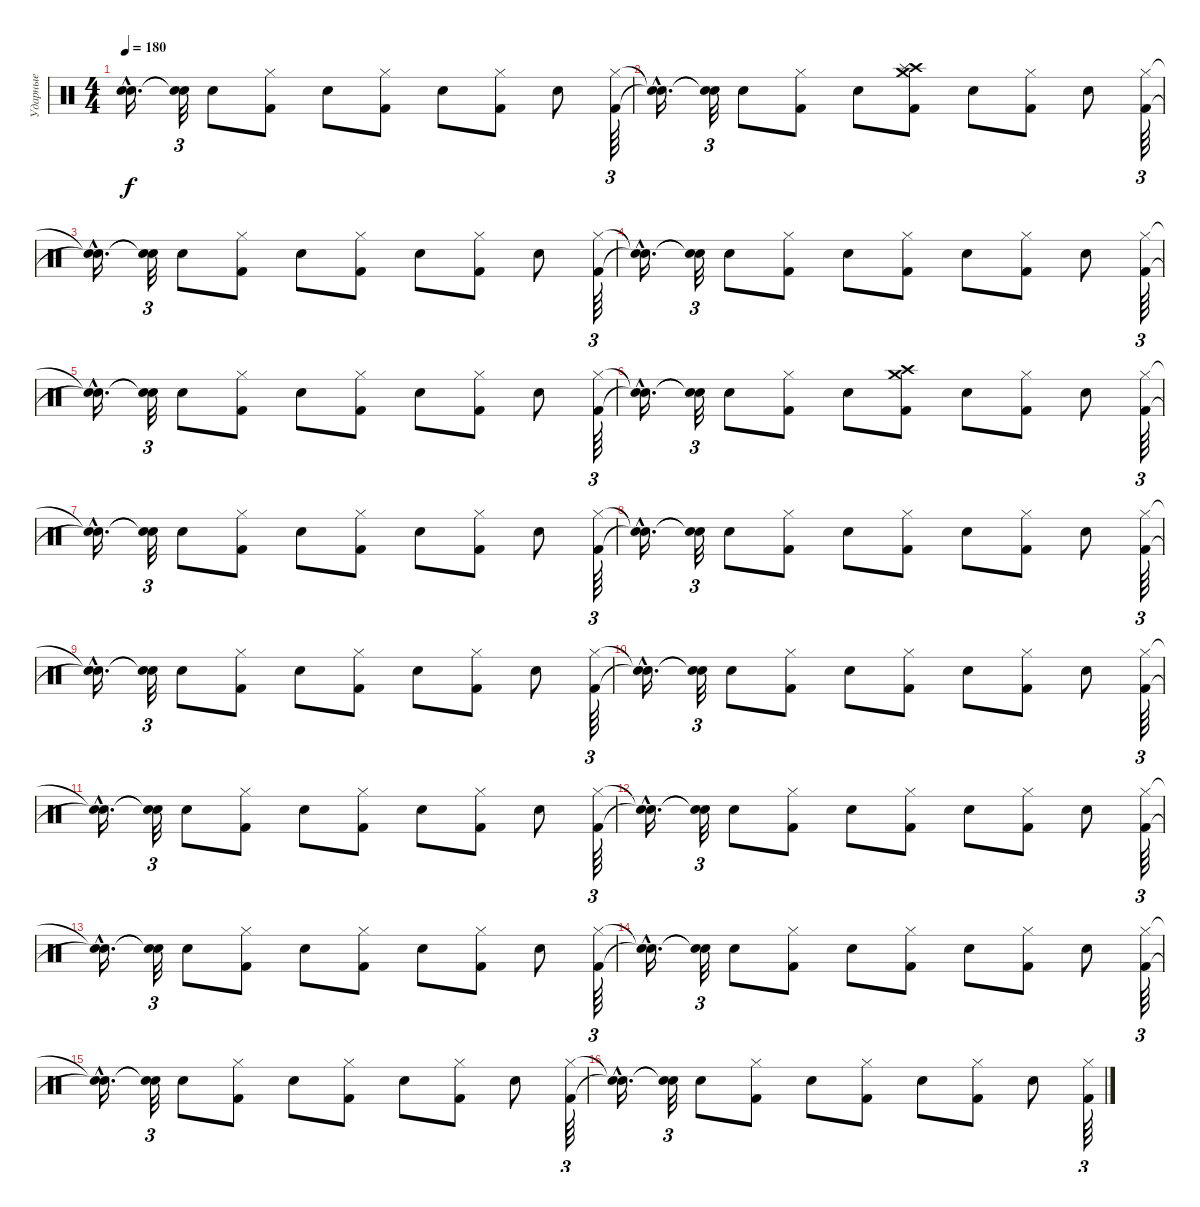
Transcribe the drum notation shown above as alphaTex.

\track ("Ударные" "Ударные") {instrument percussion}
\staff {score}
\articulation defaults
\ts (4 4)
\tempo 180
\clef neutral
\ks c
("Snare (hit)"{hac t} "Snare (hit)"{hac t}).16{d dy f} ("Snare (hit)"{t} "Snare (hit)"{t}).32{tu (3 2)} "Snare (hit) 2".8 ("Hi-Hat (closed)" "Kick (hit) 2").8 "Snare (hit) 2".8 ("Hi-Hat (closed)" "Kick (hit) 2").8 "Snare (hit) 2".8 ("Hi-Hat (closed)" "Kick (hit) 2").8 "Snare (hit) 2".8 ("Hi-Hat (closed)" "Kick (hit) 2").64{tu (3 2)} |
("Snare (hit)"{hac t} "Snare (hit)"{hac t}).16{d} ("Snare (hit)"{t} "Snare (hit)"{t}).32{tu (3 2)} "Snare (hit) 2".8 ("Hi-Hat (closed)" "Kick (hit) 2").8 "Snare (hit) 2".8 ("Crash high (hit)" "Crash medium (hit)" "Splash (hit)" "Kick (hit) 2").8 "Snare (hit) 2".8 ("Hi-Hat (closed)" "Kick (hit) 2").8 "Snare (hit) 2".8 ("Hi-Hat (closed)" "Kick (hit) 2").64{tu (3 2)} |
("Snare (hit)"{hac t} "Snare (hit)"{hac t}).16{d} ("Snare (hit)"{t} "Snare (hit)"{t}).32{tu (3 2)} "Snare (hit) 2".8 ("Hi-Hat (closed)" "Kick (hit) 2").8 "Snare (hit) 2".8 ("Hi-Hat (closed)" "Kick (hit) 2").8 "Snare (hit) 2".8 ("Hi-Hat (closed)" "Kick (hit) 2").8 "Snare (hit) 2".8 ("Hi-Hat (closed)" "Kick (hit) 2").64{tu (3 2)} |
("Snare (hit)"{hac t} "Snare (hit)"{hac t}).16{d} ("Snare (hit)"{t} "Snare (hit)"{t}).32{tu (3 2)} "Snare (hit) 2".8 ("Hi-Hat (closed)" "Kick (hit) 2").8 "Snare (hit) 2".8 ("Hi-Hat (closed)" "Kick (hit) 2").8 "Snare (hit) 2".8 ("Hi-Hat (closed)" "Kick (hit) 2").8 "Snare (hit) 2".8 ("Hi-Hat (closed)" "Kick (hit) 2").64{tu (3 2)} |
("Snare (hit)"{hac t} "Snare (hit)"{hac t}).16{d} ("Snare (hit)"{t} "Snare (hit)"{t}).32{tu (3 2)} "Snare (hit) 2".8 ("Hi-Hat (closed)" "Kick (hit) 2").8 "Snare (hit) 2".8 ("Hi-Hat (closed)" "Kick (hit) 2").8 "Snare (hit) 2".8 ("Hi-Hat (closed)" "Kick (hit) 2").8 "Snare (hit) 2".8 ("Hi-Hat (closed)" "Kick (hit) 2").64{tu (3 2)} |
("Snare (hit)"{hac t} "Snare (hit)"{hac t}).16{d} ("Snare (hit)"{t} "Snare (hit)"{t}).32{tu (3 2)} "Snare (hit) 2".8 ("Hi-Hat (closed)" "Kick (hit) 2").8 "Snare (hit) 2".8 ("Crash high (hit)" "Crash medium (hit)" "Kick (hit) 2").8 "Snare (hit) 2".8 ("Hi-Hat (closed)" "Kick (hit) 2").8 "Snare (hit) 2".8 ("Hi-Hat (closed)" "Kick (hit) 2").64{tu (3 2)} |
("Snare (hit)"{hac t} "Snare (hit)"{hac t}).16{d} ("Snare (hit)"{t} "Snare (hit)"{t}).32{tu (3 2)} "Snare (hit) 2".8 ("Hi-Hat (closed)" "Kick (hit) 2").8 "Snare (hit) 2".8 ("Hi-Hat (closed)" "Kick (hit) 2").8 "Snare (hit) 2".8 ("Hi-Hat (closed)" "Kick (hit) 2").8 "Snare (hit) 2".8 ("Hi-Hat (closed)" "Kick (hit) 2").64{tu (3 2)} |
("Snare (hit)"{hac t} "Snare (hit)"{hac t}).16{d} ("Snare (hit)"{t} "Snare (hit)"{t}).32{tu (3 2)} "Snare (hit) 2".8 ("Hi-Hat (closed)" "Kick (hit) 2").8 "Snare (hit) 2".8 ("Hi-Hat (closed)" "Kick (hit) 2").8 "Snare (hit) 2".8 ("Hi-Hat (closed)" "Kick (hit) 2").8 "Snare (hit) 2".8 ("Hi-Hat (closed)" "Kick (hit) 2").64{tu (3 2)} |
("Snare (hit)"{hac t} "Snare (hit)"{hac t}).16{d} ("Snare (hit)"{t} "Snare (hit)"{t}).32{tu (3 2)} "Snare (hit) 2".8 ("Hi-Hat (closed)" "Kick (hit) 2").8 "Snare (hit) 2".8 ("Hi-Hat (closed)" "Kick (hit) 2").8 "Snare (hit) 2".8 ("Hi-Hat (closed)" "Kick (hit) 2").8 "Snare (hit) 2".8 ("Hi-Hat (closed)" "Kick (hit) 2").64{tu (3 2)} |
("Snare (hit)"{hac t} "Snare (hit)"{hac t}).16{d} ("Snare (hit)"{t} "Snare (hit)"{t}).32{tu (3 2)} "Snare (hit) 2".8 ("Hi-Hat (closed)" "Kick (hit) 2").8 "Snare (hit) 2".8 ("Hi-Hat (closed)" "Kick (hit) 2").8 "Snare (hit) 2".8 ("Hi-Hat (closed)" "Kick (hit) 2").8 "Snare (hit) 2".8 ("Hi-Hat (closed)" "Kick (hit) 2").64{tu (3 2)} |
("Snare (hit)"{hac t} "Snare (hit)"{hac t}).16{d} ("Snare (hit)"{t} "Snare (hit)"{t}).32{tu (3 2)} "Snare (hit) 2".8 ("Hi-Hat (closed)" "Kick (hit) 2").8 "Snare (hit) 2".8 ("Hi-Hat (closed)" "Kick (hit) 2").8 "Snare (hit) 2".8 ("Hi-Hat (closed)" "Kick (hit) 2").8 "Snare (hit) 2".8 ("Hi-Hat (closed)" "Kick (hit) 2").64{tu (3 2)} |
("Snare (hit)"{hac t} "Snare (hit)"{hac t}).16{d} ("Snare (hit)"{t} "Snare (hit)"{t}).32{tu (3 2)} "Snare (hit) 2".8 ("Hi-Hat (closed)" "Kick (hit) 2").8 "Snare (hit) 2".8 ("Hi-Hat (closed)" "Kick (hit) 2").8 "Snare (hit) 2".8 ("Hi-Hat (closed)" "Kick (hit) 2").8 "Snare (hit) 2".8 ("Hi-Hat (closed)" "Kick (hit) 2").64{tu (3 2)} |
("Snare (hit)"{hac t} "Snare (hit)"{hac t}).16{d} ("Snare (hit)"{t} "Snare (hit)"{t}).32{tu (3 2)} "Snare (hit) 2".8 ("Hi-Hat (closed)" "Kick (hit) 2").8 "Snare (hit) 2".8 ("Hi-Hat (closed)" "Kick (hit) 2").8 "Snare (hit) 2".8 ("Hi-Hat (closed)" "Kick (hit) 2").8 "Snare (hit) 2".8 ("Hi-Hat (closed)" "Kick (hit) 2").64{tu (3 2)} |
("Snare (hit)"{hac t} "Snare (hit)"{hac t}).16{d} ("Snare (hit)"{t} "Snare (hit)"{t}).32{tu (3 2)} "Snare (hit) 2".8 ("Hi-Hat (closed)" "Kick (hit) 2").8 "Snare (hit) 2".8 ("Hi-Hat (closed)" "Kick (hit) 2").8 "Snare (hit) 2".8 ("Hi-Hat (closed)" "Kick (hit) 2").8 "Snare (hit) 2".8 ("Hi-Hat (closed)" "Kick (hit) 2").64{tu (3 2)} |
("Snare (hit)"{hac t} "Snare (hit)"{hac t}).16{d} ("Snare (hit)"{t} "Snare (hit)"{t}).32{tu (3 2)} "Snare (hit) 2".8 ("Hi-Hat (closed)" "Kick (hit) 2").8 "Snare (hit) 2".8 ("Hi-Hat (closed)" "Kick (hit) 2").8 "Snare (hit) 2".8 ("Hi-Hat (closed)" "Kick (hit) 2").8 "Snare (hit) 2".8 ("Hi-Hat (closed)" "Kick (hit) 2").64{tu (3 2)} |
("Snare (hit)"{hac t} "Snare (hit)"{hac t}).16{d} ("Snare (hit)"{t} "Snare (hit)"{t}).32{tu (3 2)} "Snare (hit) 2".8 ("Hi-Hat (closed)" "Kick (hit) 2").8 "Snare (hit) 2".8 ("Hi-Hat (closed)" "Kick (hit) 2").8 "Snare (hit) 2".8 ("Hi-Hat (closed)" "Kick (hit) 2").8 "Snare (hit) 2".8 ("Hi-Hat (closed)" "Kick (hit) 2").64{tu (3 2)}
